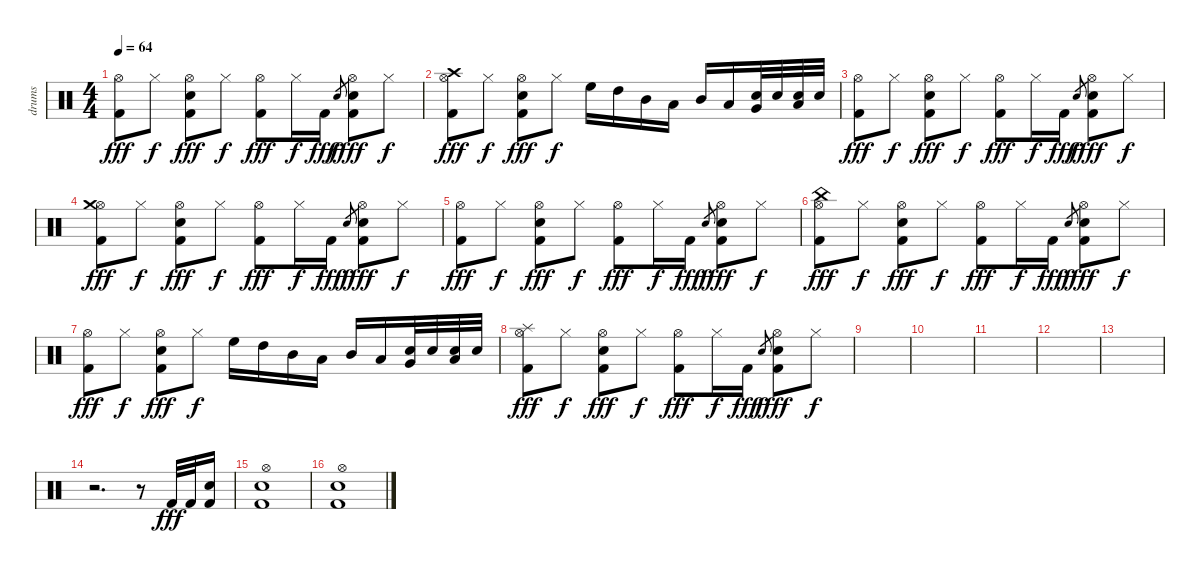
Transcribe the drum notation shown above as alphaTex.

\track ("drums" "drums") {instrument percussion}
\staff {score}
\articulation defaults
\ts (4 4)
\tempo 64
\clef neutral
\ks c
("Kick (hit) 2" "Hi-Hat (open)").8{dy fff} "Hi-Hat (closed)".8{dy f} ("Kick (hit) 2" "Hi-Hat (open)" "Electric Snare (hit)").8{dy fff} "Hi-Hat (closed)".8{dy f} ("Kick (hit) 2" "Hi-Hat (open)").8{dy fff} "Hi-Hat (closed)".16{dy f} "Kick (hit) 2".16{dy fff} "Electric Snare (hit)".8{gr dy f} ("Kick (hit) 2" "Hi-Hat (open)" "Electric Snare (hit)").8{dy fff} "Hi-Hat (closed)".8{dy f} |
("Kick (hit) 2" "Hi-Hat (open)" "Crash high (hit)").8{dy fff} "Hi-Hat (closed)".8{dy f} ("Kick (hit) 2" "Hi-Hat (open)" "Electric Snare (hit)").8{dy fff} "Hi-Hat (closed)".8{dy f} "High Floor Tom (hit)".16 "High Tom (hit)".16 "Mid Tom (hit)".16 "Low Tom (hit)".16 "Mid Tom (hit)".16 "Low Tom (hit)".16 ("Electric Snare (hit)" "Very Low Tom (hit)").32 "Electric Snare (hit)".32 ("Electric Snare (hit)" "Low Floor Tom (hit)").32 "Electric Snare (hit)".32 |
("Kick (hit) 2" "Hi-Hat (open)").8{dy fff} "Hi-Hat (closed)".8{dy f} ("Kick (hit) 2" "Hi-Hat (open)" "Electric Snare (hit)").8{dy fff} "Hi-Hat (closed)".8{dy f} ("Kick (hit) 2" "Hi-Hat (open)").8{dy fff} "Hi-Hat (closed)".16{dy f} "Kick (hit) 2".16{dy fff} "Electric Snare (hit)".8{gr dy f} ("Kick (hit) 2" "Hi-Hat (open)" "Electric Snare (hit)").8{dy fff} "Hi-Hat (closed)".8{dy f} |
("Kick (hit) 2" "Hi-Hat (open)" "Crash medium (hit)").8{dy fff} "Hi-Hat (closed)".8{dy f} ("Kick (hit) 2" "Hi-Hat (open)" "Electric Snare (hit)").8{dy fff} "Hi-Hat (closed)".8{dy f} ("Kick (hit) 2" "Hi-Hat (open)").8{dy fff} "Hi-Hat (closed)".16{dy f} "Kick (hit) 2".16{dy fff} "Electric Snare (hit)".8{gr dy f} ("Kick (hit) 2" "Hi-Hat (open)" "Electric Snare (hit)").8{dy fff} "Hi-Hat (closed)".8{dy f} |
("Kick (hit) 2" "Hi-Hat (open)").8{dy fff} "Hi-Hat (closed)".8{dy f} ("Kick (hit) 2" "Hi-Hat (open)" "Electric Snare (hit)").8{dy fff} "Hi-Hat (closed)".8{dy f} ("Kick (hit) 2" "Hi-Hat (open)").8{dy fff} "Hi-Hat (closed)".16{dy f} "Kick (hit) 2".16{dy fff} "Electric Snare (hit)".8{gr dy f} ("Kick (hit) 2" "Hi-Hat (open)" "Electric Snare (hit)").8{dy fff} "Hi-Hat (closed)".8{dy f} |
("Kick (hit) 2" "Hi-Hat (open)" "China (hit)").8{dy fff} "Hi-Hat (closed)".8{dy f} ("Kick (hit) 2" "Hi-Hat (open)" "Electric Snare (hit)").8{dy fff} "Hi-Hat (closed)".8{dy f} ("Kick (hit) 2" "Hi-Hat (open)").8{dy fff} "Hi-Hat (closed)".16{dy f} "Kick (hit) 2".16{dy fff} "Electric Snare (hit)".8{gr dy f} ("Kick (hit) 2" "Hi-Hat (open)" "Electric Snare (hit)").8{dy fff} "Hi-Hat (closed)".8{dy f} |
("Kick (hit) 2" "Hi-Hat (open)").8{dy fff} "Hi-Hat (closed)".8{dy f} ("Kick (hit) 2" "Hi-Hat (open)" "Electric Snare (hit)").8{dy fff} "Hi-Hat (closed)".8{dy f} "High Floor Tom (hit)".16 "High Tom (hit)".16 "Mid Tom (hit)".16 "Low Tom (hit)".16 "Mid Tom (hit)".16 "Low Tom (hit)".16 ("Electric Snare (hit)" "Very Low Tom (hit)").32 "Electric Snare (hit)".32 ("Electric Snare (hit)" "Low Floor Tom (hit)").32 "Electric Snare (hit)".32 |
("Kick (hit) 2" "Hi-Hat (open)" "Splash (hit)").8{dy fff} "Hi-Hat (closed)".8{dy f} ("Kick (hit) 2" "Hi-Hat (open)" "Electric Snare (hit)").8{dy fff} "Hi-Hat (closed)".8{dy f} ("Kick (hit) 2" "Hi-Hat (open)").8{dy fff} "Hi-Hat (closed)".16{dy f} "Kick (hit) 2".16{dy fff} "Electric Snare (hit)".8{gr dy f} ("Kick (hit) 2" "Hi-Hat (open)" "Electric Snare (hit)").8{dy fff} "Hi-Hat (closed)".8{dy f} |
|
|
|
|
|
r.2{d} r.8 "Kick (hit) 2".32{dy fff} "Kick (hit) 2".32 ("Kick (hit) 2" "Snare (hit) 2").16 |
("Kick (hit) 2" "Snare (hit) 2" "Hi-Hat (open)").1 |
("Kick (hit) 2" "Snare (hit) 2" "Hi-Hat (open)").1
